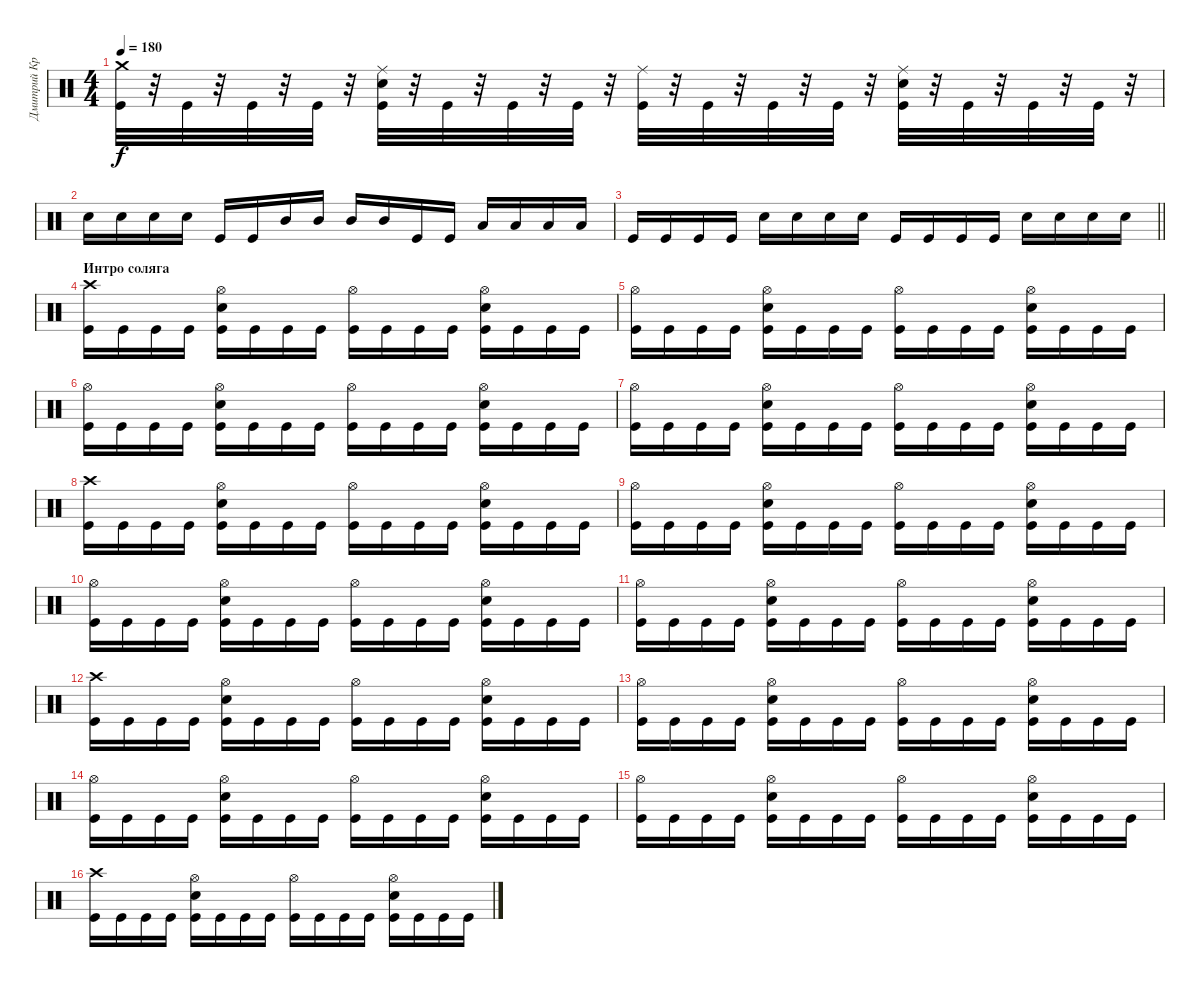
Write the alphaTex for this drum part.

\track ("Дмитрий Кривенков" "Дмитрий Кр") {instrument percussion}
\staff {score}
\articulation defaults
\ts (4 4)
\tempo 180
\clef neutral
\ks c
("Kick (hit)" "Crash medium (hit)").32{dy f} r.32 "Kick (hit)".32 r.32 "Kick (hit)".32 r.32 "Kick (hit)".32 r.32 ("Kick (hit)" "Electric Snare (hit)" "Ride (middle)").32 r.32 "Kick (hit)".32 r.32 "Kick (hit)".32 r.32 "Kick (hit)".32 r.32 ("Kick (hit)" "Ride (middle)").32 r.32 "Kick (hit)".32 r.32 "Kick (hit)".32 r.32 "Kick (hit)".32 r.32 ("Ride (middle)" "Electric Snare (hit)" "Kick (hit)").32 r.32 "Kick (hit)".32 r.32 "Kick (hit)".32 r.32 "Kick (hit)".32 r.32 |
"Electric Snare (hit)".16 "Electric Snare (hit)".16 "Electric Snare (hit)".16 "Electric Snare (hit)".16 "Kick (hit)".16 "Kick (hit)".16 "Mid Tom (hit)".16 "Mid Tom (hit)".16 "Mid Tom (hit)".16 "Mid Tom (hit)".16 "Kick (hit)".16 "Kick (hit)".16 "Low Floor Tom (hit)".16 "Low Floor Tom (hit)".16 "Low Floor Tom (hit)".16 "Low Floor Tom (hit)".16 |
\barLineRight lightlight "Kick (hit)".16 "Kick (hit)".16 "Kick (hit)".16 "Kick (hit)".16 "Electric Snare (hit)".16 "Electric Snare (hit)".16 "Electric Snare (hit)".16 "Electric Snare (hit)".16 "Kick (hit)".16 "Kick (hit)".16 "Kick (hit)".16 "Kick (hit)".16 "Electric Snare (hit)".16 "Electric Snare (hit)".16 "Electric Snare (hit)".16 "Electric Snare (hit)".16
|
\section ("" "Интро соляга")
("Kick (hit)" "Crash high (hit)").16 "Kick (hit)".16 "Kick (hit)".16 "Kick (hit)".16 ("Kick (hit)" "Electric Snare (hit)" "Hi-Hat (open)").16 "Kick (hit)".16 "Kick (hit)".16 "Kick (hit)".16 ("Kick (hit)" "Hi-Hat (open)").16 "Kick (hit)".16 "Kick (hit)".16 "Kick (hit)".16 ("Kick (hit)" "Electric Snare (hit)" "Hi-Hat (open)").16 "Kick (hit)".16 "Kick (hit)".16 "Kick (hit)".16 |
("Kick (hit)" "Hi-Hat (open)").16 "Kick (hit)".16 "Kick (hit)".16 "Kick (hit)".16 ("Hi-Hat (open)" "Electric Snare (hit)" "Kick (hit)").16 "Kick (hit)".16 "Kick (hit)".16 "Kick (hit)".16 ("Hi-Hat (open)" "Kick (hit)").16 "Kick (hit)".16 "Kick (hit)".16 "Kick (hit)".16 ("Hi-Hat (open)" "Electric Snare (hit)" "Kick (hit)").16 "Kick (hit)".16 "Kick (hit)".16 "Kick (hit)".16 |
("Hi-Hat (open)" "Kick (hit)").16 "Kick (hit)".16 "Kick (hit)".16 "Kick (hit)".16 ("Hi-Hat (open)" "Electric Snare (hit)" "Kick (hit)").16 "Kick (hit)".16 "Kick (hit)".16 "Kick (hit)".16 ("Hi-Hat (open)" "Kick (hit)").16 "Kick (hit)".16 "Kick (hit)".16 "Kick (hit)".16 ("Hi-Hat (open)" "Electric Snare (hit)" "Kick (hit)").16 "Kick (hit)".16 "Kick (hit)".16 "Kick (hit)".16 |
("Hi-Hat (open)" "Kick (hit)").16 "Kick (hit)".16 "Kick (hit)".16 "Kick (hit)".16 ("Hi-Hat (open)" "Electric Snare (hit)" "Kick (hit)").16 "Kick (hit)".16 "Kick (hit)".16 "Kick (hit)".16 ("Hi-Hat (open)" "Kick (hit)").16 "Kick (hit)".16 "Kick (hit)".16 "Kick (hit)".16 ("Hi-Hat (open)" "Electric Snare (hit)" "Kick (hit)").16 "Kick (hit)".16 "Kick (hit)".16 "Kick (hit)".16 |
("Crash high (hit)" "Kick (hit)").16 "Kick (hit)".16 "Kick (hit)".16 "Kick (hit)".16 ("Hi-Hat (open)" "Electric Snare (hit)" "Kick (hit)").16 "Kick (hit)".16 "Kick (hit)".16 "Kick (hit)".16 ("Hi-Hat (open)" "Kick (hit)").16 "Kick (hit)".16 "Kick (hit)".16 "Kick (hit)".16 ("Hi-Hat (open)" "Electric Snare (hit)" "Kick (hit)").16 "Kick (hit)".16 "Kick (hit)".16 "Kick (hit)".16 |
("Hi-Hat (open)" "Kick (hit)").16 "Kick (hit)".16 "Kick (hit)".16 "Kick (hit)".16 ("Hi-Hat (open)" "Electric Snare (hit)" "Kick (hit)").16 "Kick (hit)".16 "Kick (hit)".16 "Kick (hit)".16 ("Hi-Hat (open)" "Kick (hit)").16 "Kick (hit)".16 "Kick (hit)".16 "Kick (hit)".16 ("Hi-Hat (open)" "Electric Snare (hit)" "Kick (hit)").16 "Kick (hit)".16 "Kick (hit)".16 "Kick (hit)".16 |
("Hi-Hat (open)" "Kick (hit)").16 "Kick (hit)".16 "Kick (hit)".16 "Kick (hit)".16 ("Hi-Hat (open)" "Electric Snare (hit)" "Kick (hit)").16 "Kick (hit)".16 "Kick (hit)".16 "Kick (hit)".16 ("Hi-Hat (open)" "Kick (hit)").16 "Kick (hit)".16 "Kick (hit)".16 "Kick (hit)".16 ("Kick (hit)" "Electric Snare (hit)" "Hi-Hat (open)").16 "Kick (hit)".16 "Kick (hit)".16 "Kick (hit)".16 |
("Kick (hit)" "Hi-Hat (open)").16 "Kick (hit)".16 "Kick (hit)".16 "Kick (hit)".16 ("Kick (hit)" "Electric Snare (hit)" "Hi-Hat (open)").16 "Kick (hit)".16 "Kick (hit)".16 "Kick (hit)".16 ("Kick (hit)" "Hi-Hat (open)").16 "Kick (hit)".16 "Kick (hit)".16 "Kick (hit)".16 ("Kick (hit)" "Electric Snare (hit)" "Hi-Hat (open)").16 "Kick (hit)".16 "Kick (hit)".16 "Kick (hit)".16 |
("Kick (hit)" "Crash high (hit)").16 "Kick (hit)".16 "Kick (hit)".16 "Kick (hit)".16 ("Kick (hit)" "Electric Snare (hit)" "Hi-Hat (open)").16 "Kick (hit)".16 "Kick (hit)".16 "Kick (hit)".16 ("Kick (hit)" "Hi-Hat (open)").16 "Kick (hit)".16 "Kick (hit)".16 "Kick (hit)".16 ("Kick (hit)" "Electric Snare (hit)" "Hi-Hat (open)").16 "Kick (hit)".16 "Kick (hit)".16 "Kick (hit)".16 |
("Kick (hit)" "Hi-Hat (open)").16 "Kick (hit)".16 "Kick (hit)".16 "Kick (hit)".16 ("Kick (hit)" "Electric Snare (hit)" "Hi-Hat (open)").16 "Kick (hit)".16 "Kick (hit)".16 "Kick (hit)".16 ("Kick (hit)" "Hi-Hat (open)").16 "Kick (hit)".16 "Kick (hit)".16 "Kick (hit)".16 ("Hi-Hat (open)" "Electric Snare (hit)" "Kick (hit)").16 "Kick (hit)".16 "Kick (hit)".16 "Kick (hit)".16 |
("Hi-Hat (open)" "Kick (hit)").16 "Kick (hit)".16 "Kick (hit)".16 "Kick (hit)".16 ("Hi-Hat (open)" "Electric Snare (hit)" "Kick (hit)").16 "Kick (hit)".16 "Kick (hit)".16 "Kick (hit)".16 ("Hi-Hat (open)" "Kick (hit)").16 "Kick (hit)".16 "Kick (hit)".16 "Kick (hit)".16 ("Hi-Hat (open)" "Electric Snare (hit)" "Kick (hit)").16 "Kick (hit)".16 "Kick (hit)".16 "Kick (hit)".16 |
("Hi-Hat (open)" "Kick (hit)").16 "Kick (hit)".16 "Kick (hit)".16 "Kick (hit)".16 ("Hi-Hat (open)" "Electric Snare (hit)" "Kick (hit)").16 "Kick (hit)".16 "Kick (hit)".16 "Kick (hit)".16 ("Hi-Hat (open)" "Kick (hit)").16 "Kick (hit)".16 "Kick (hit)".16 "Kick (hit)".16 ("Hi-Hat (open)" "Electric Snare (hit)" "Kick (hit)").16 "Kick (hit)".16 "Kick (hit)".16 "Kick (hit)".16 |
("Crash high (hit)" "Kick (hit)").16 "Kick (hit)".16 "Kick (hit)".16 "Kick (hit)".16 ("Hi-Hat (open)" "Electric Snare (hit)" "Kick (hit)").16 "Kick (hit)".16 "Kick (hit)".16 "Kick (hit)".16 ("Hi-Hat (open)" "Kick (hit)").16 "Kick (hit)".16 "Kick (hit)".16 "Kick (hit)".16 ("Hi-Hat (open)" "Electric Snare (hit)" "Kick (hit)").16 "Kick (hit)".16 "Kick (hit)".16 "Kick (hit)".16
